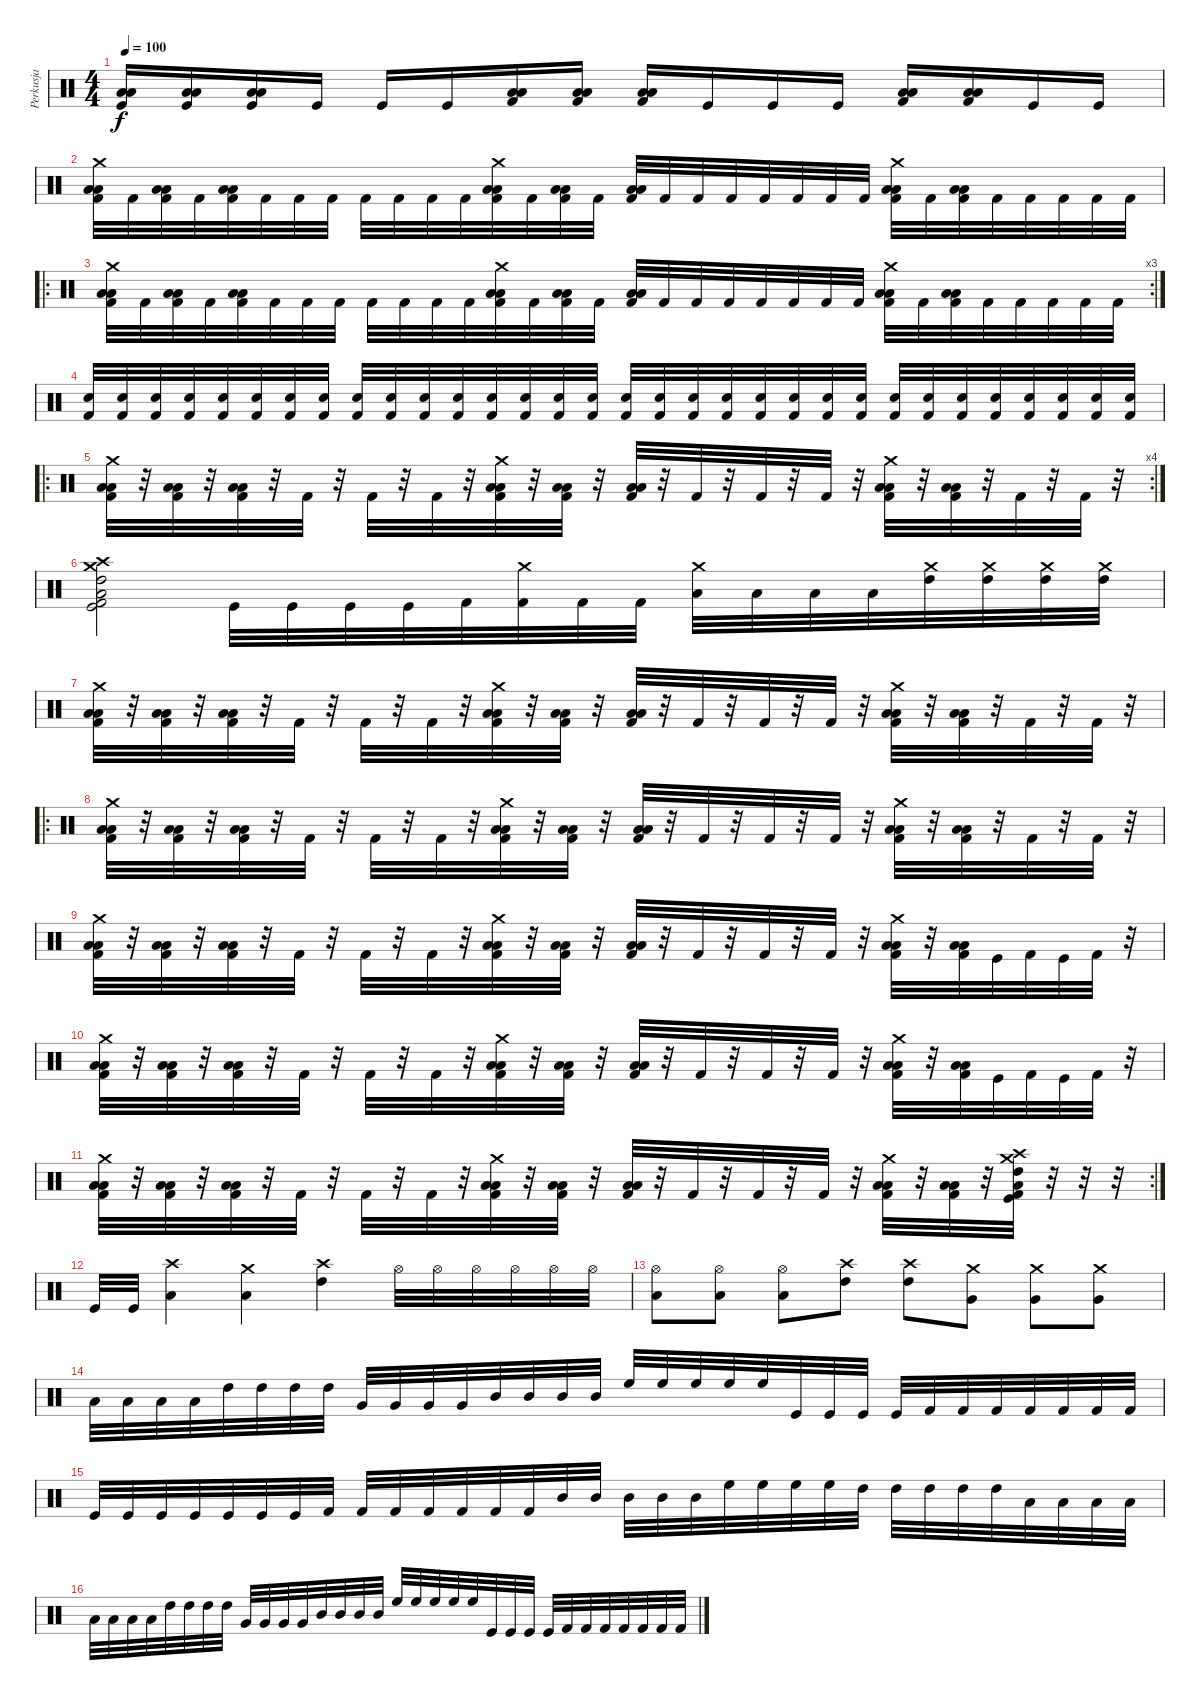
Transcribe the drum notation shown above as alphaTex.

\track ("Perkusja" "Perkusja") {instrument percussion}
\staff {score}
\articulation defaults
\ts (4 4)
\tempo 100
\clef neutral
\ks c
("Low Tom (hit)" "Low Tom (hit)" "Kick (hit)").16{dy f} ("Low Tom (hit)" "Low Tom (hit)" "Kick (hit)").16 ("Low Tom (hit)" "Low Tom (hit)" "Kick (hit)").16 "Kick (hit)".16 "Kick (hit)".16 "Kick (hit)".16 ("Low Tom (hit)" "Low Tom (hit)" "Kick (hit) 2").16 ("Low Tom (hit)" "Low Tom (hit)" "Kick (hit) 2").16 ("Low Tom (hit)" "Low Tom (hit)" "Kick (hit) 2").16 "Kick (hit)".16 "Kick (hit)".16 "Kick (hit)".16 ("Low Tom (hit)" "Low Tom (hit)" "Kick (hit) 2").16 ("Low Tom (hit)" "Low Tom (hit)" "Kick (hit) 2").16 "Kick (hit)".16 "Kick (hit)".16 |
("Crash medium (hit)" "Low Tom (hit)" "Low Tom (hit)" "Kick (hit) 2").32 "Kick (hit) 2".32 ("Low Tom (hit)" "Low Tom (hit)" "Kick (hit) 2").32 "Kick (hit) 2".32 ("Low Tom (hit)" "Low Tom (hit)" "Kick (hit) 2").32 "Kick (hit) 2".32 "Kick (hit) 2".32 "Kick (hit) 2".32 "Kick (hit) 2".32 "Kick (hit) 2".32 "Kick (hit) 2".32 "Kick (hit) 2".32 ("Crash medium (hit)" "Low Tom (hit)" "Low Tom (hit)" "Kick (hit) 2").32 "Kick (hit) 2".32 ("Low Tom (hit)" "Low Tom (hit)" "Kick (hit) 2").32 "Kick (hit) 2".32 ("Low Tom (hit)" "Low Tom (hit)" "Kick (hit) 2").32 "Kick (hit) 2".32 "Kick (hit) 2".32 "Kick (hit) 2".32 "Kick (hit) 2".32 "Kick (hit) 2".32 "Kick (hit) 2".32 "Kick (hit) 2".32 ("Crash medium (hit)" "Low Tom (hit)" "Low Tom (hit)" "Kick (hit) 2").32 "Kick (hit) 2".32 ("Low Tom (hit)" "Low Tom (hit)" "Kick (hit) 2").32 "Kick (hit) 2".32 "Kick (hit) 2".32 "Kick (hit) 2".32 "Kick (hit) 2".32 "Kick (hit) 2".32 |
\ro
\rc 3
("Crash medium (hit)" "Low Tom (hit)" "Low Tom (hit)" "Kick (hit) 2").32 "Kick (hit) 2".32 ("Low Tom (hit)" "Low Tom (hit)" "Kick (hit) 2").32 "Kick (hit) 2".32 ("Low Tom (hit)" "Low Tom (hit)" "Kick (hit) 2").32 "Kick (hit) 2".32 "Kick (hit) 2".32 "Kick (hit) 2".32 "Kick (hit) 2".32 "Kick (hit) 2".32 "Kick (hit) 2".32 "Kick (hit) 2".32 ("Crash medium (hit)" "Low Tom (hit)" "Low Tom (hit)" "Kick (hit) 2").32 "Kick (hit) 2".32 ("Low Tom (hit)" "Low Tom (hit)" "Kick (hit) 2").32 "Kick (hit) 2".32 ("Low Tom (hit)" "Low Tom (hit)" "Kick (hit) 2").32 "Kick (hit) 2".32 "Kick (hit) 2".32 "Kick (hit) 2".32 "Kick (hit) 2".32 "Kick (hit) 2".32 "Kick (hit) 2".32 "Kick (hit) 2".32 ("Crash medium (hit)" "Low Tom (hit)" "Low Tom (hit)" "Kick (hit) 2").32 "Kick (hit) 2".32 ("Low Tom (hit)" "Low Tom (hit)" "Kick (hit) 2").32 "Kick (hit) 2".32 "Kick (hit) 2".32 "Kick (hit) 2".32 "Kick (hit) 2".32 "Kick (hit) 2".32 |
("Electric Snare (hit)" "Kick (hit) 2").32 ("Electric Snare (hit)" "Kick (hit) 2").32 ("Electric Snare (hit)" "Kick (hit) 2").32 ("Electric Snare (hit)" "Kick (hit) 2").32 ("Electric Snare (hit)" "Kick (hit) 2").32 ("Electric Snare (hit)" "Kick (hit) 2").32 ("Electric Snare (hit)" "Kick (hit) 2").32 ("Electric Snare (hit)" "Kick (hit) 2").32 ("Electric Snare (hit)" "Kick (hit) 2").32 ("Electric Snare (hit)" "Kick (hit) 2").32 ("Electric Snare (hit)" "Kick (hit) 2").32 ("Electric Snare (hit)" "Kick (hit) 2").32 ("Electric Snare (hit)" "Kick (hit) 2").32 ("Electric Snare (hit)" "Kick (hit) 2").32 ("Electric Snare (hit)" "Kick (hit) 2").32 ("Electric Snare (hit)" "Kick (hit) 2").32 ("Electric Snare (hit)" "Kick (hit) 2").32 ("Electric Snare (hit)" "Kick (hit) 2").32 ("Electric Snare (hit)" "Kick (hit) 2").32 ("Electric Snare (hit)" "Kick (hit) 2").32 ("Electric Snare (hit)" "Kick (hit) 2").32 ("Electric Snare (hit)" "Kick (hit) 2").32 ("Electric Snare (hit)" "Kick (hit) 2").32 ("Electric Snare (hit)" "Kick (hit) 2").32 ("Electric Snare (hit)" "Kick (hit) 2").32 ("Electric Snare (hit)" "Kick (hit) 2").32 ("Electric Snare (hit)" "Kick (hit) 2").32 ("Electric Snare (hit)" "Kick (hit) 2").32 ("Electric Snare (hit)" "Kick (hit) 2").32 ("Electric Snare (hit)" "Kick (hit) 2").32 ("Electric Snare (hit)" "Kick (hit) 2").32 ("Electric Snare (hit)" "Kick (hit) 2").32 |
\ro
\rc 4
("Crash medium (hit)" "Low Tom (hit)" "Low Tom (hit)" "Kick (hit) 2").32 r.32 ("Low Tom (hit)" "Low Tom (hit)" "Kick (hit) 2").32 r.32 ("Low Tom (hit)" "Low Tom (hit)" "Kick (hit) 2").32 r.32 "Kick (hit) 2".32 r.32 "Kick (hit) 2".32 r.32 "Kick (hit) 2".32 r.32 ("Crash medium (hit)" "Low Tom (hit)" "Low Tom (hit)" "Kick (hit) 2").32 r.32 ("Low Tom (hit)" "Low Tom (hit)" "Kick (hit) 2").32 r.32 ("Low Tom (hit)" "Low Tom (hit)" "Kick (hit) 2").32 r.32 "Kick (hit) 2".32 r.32 "Kick (hit) 2".32 r.32 "Kick (hit) 2".32 r.32 ("Crash medium (hit)" "Low Tom (hit)" "Low Tom (hit)" "Kick (hit) 2").32 r.32 ("Low Tom (hit)" "Low Tom (hit)" "Kick (hit) 2").32 r.32 "Kick (hit) 2".32 r.32 "Kick (hit) 2".32 r.32 |
("Crash high (hit)" "Crash medium (hit)" "High Tom (hit)" "Low Tom (hit)" "Kick (hit)" "Kick (hit) 2").2 "Kick (hit)".32 "Kick (hit)".32 "Kick (hit)".32 "Kick (hit)".32 "Kick (hit) 2".32 ("Crash medium (hit)" "Kick (hit) 2").32 "Kick (hit) 2".32 "Kick (hit) 2".32 ("Crash medium (hit)" "Low Tom (hit)").32 "Low Tom (hit)".32 "Low Tom (hit)".32 "Low Tom (hit)".32 ("Crash medium (hit)" "High Tom (hit)").32 ("Crash medium (hit)" "High Tom (hit)").32 ("Crash medium (hit)" "High Tom (hit)").32 ("Crash medium (hit)" "High Tom (hit)").32 |
("Crash medium (hit)" "Low Tom (hit)" "Low Tom (hit)" "Kick (hit) 2").32 r.32 ("Low Tom (hit)" "Low Tom (hit)" "Kick (hit) 2").32 r.32 ("Low Tom (hit)" "Low Tom (hit)" "Kick (hit) 2").32 r.32 "Kick (hit) 2".32 r.32 "Kick (hit) 2".32 r.32 "Kick (hit) 2".32 r.32 ("Crash medium (hit)" "Low Tom (hit)" "Low Tom (hit)" "Kick (hit) 2").32 r.32 ("Low Tom (hit)" "Low Tom (hit)" "Kick (hit) 2").32 r.32 ("Low Tom (hit)" "Low Tom (hit)" "Kick (hit) 2").32 r.32 "Kick (hit) 2".32 r.32 "Kick (hit) 2".32 r.32 "Kick (hit) 2".32 r.32 ("Crash medium (hit)" "Low Tom (hit)" "Low Tom (hit)" "Kick (hit) 2").32 r.32 ("Low Tom (hit)" "Low Tom (hit)" "Kick (hit) 2").32 r.32 "Kick (hit) 2".32 r.32 "Kick (hit) 2".32 r.32 |
\ro
("Crash medium (hit)" "Low Tom (hit)" "Low Tom (hit)" "Kick (hit) 2").32 r.32 ("Low Tom (hit)" "Low Tom (hit)" "Kick (hit) 2").32 r.32 ("Low Tom (hit)" "Low Tom (hit)" "Kick (hit) 2").32 r.32 "Kick (hit) 2".32 r.32 "Kick (hit) 2".32 r.32 "Kick (hit) 2".32 r.32 ("Crash medium (hit)" "Low Tom (hit)" "Low Tom (hit)" "Kick (hit) 2").32 r.32 ("Low Tom (hit)" "Low Tom (hit)" "Kick (hit) 2").32 r.32 ("Low Tom (hit)" "Low Tom (hit)" "Kick (hit) 2").32 r.32 "Kick (hit) 2".32 r.32 "Kick (hit) 2".32 r.32 "Kick (hit) 2".32 r.32 ("Crash medium (hit)" "Low Tom (hit)" "Low Tom (hit)" "Kick (hit) 2").32 r.32 ("Low Tom (hit)" "Low Tom (hit)" "Kick (hit) 2").32 r.32 "Kick (hit) 2".32 r.32 "Kick (hit) 2".32 r.32 |
("Crash medium (hit)" "Low Tom (hit)" "Low Tom (hit)" "Kick (hit) 2").32 r.32 ("Low Tom (hit)" "Low Tom (hit)" "Kick (hit) 2").32 r.32 ("Low Tom (hit)" "Low Tom (hit)" "Kick (hit) 2").32 r.32 "Kick (hit) 2".32 r.32 "Kick (hit) 2".32 r.32 "Kick (hit) 2".32 r.32 ("Crash medium (hit)" "Low Tom (hit)" "Low Tom (hit)" "Kick (hit) 2").32 r.32 ("Low Tom (hit)" "Low Tom (hit)" "Kick (hit) 2").32 r.32 ("Low Tom (hit)" "Low Tom (hit)" "Kick (hit) 2").32 r.32 "Kick (hit) 2".32 r.32 "Kick (hit) 2".32 r.32 "Kick (hit) 2".32 r.32 ("Crash medium (hit)" "Low Tom (hit)" "Low Tom (hit)" "Kick (hit) 2").32 r.32 ("Low Tom (hit)" "Low Tom (hit)" "Kick (hit) 2").32 "Kick (hit)".32 "Kick (hit) 2".32 "Kick (hit)".32 "Kick (hit) 2".32 r.32 |
("Crash medium (hit)" "Low Tom (hit)" "Low Tom (hit)" "Kick (hit) 2").32 r.32 ("Low Tom (hit)" "Low Tom (hit)" "Kick (hit) 2").32 r.32 ("Low Tom (hit)" "Low Tom (hit)" "Kick (hit) 2").32 r.32 "Kick (hit) 2".32 r.32 "Kick (hit) 2".32 r.32 "Kick (hit) 2".32 r.32 ("Crash medium (hit)" "Low Tom (hit)" "Low Tom (hit)" "Kick (hit) 2").32 r.32 ("Low Tom (hit)" "Low Tom (hit)" "Kick (hit) 2").32 r.32 ("Low Tom (hit)" "Low Tom (hit)" "Kick (hit) 2").32 r.32 "Kick (hit) 2".32 r.32 "Kick (hit) 2".32 r.32 "Kick (hit) 2".32 r.32 ("Crash medium (hit)" "Low Tom (hit)" "Low Tom (hit)" "Kick (hit) 2").32 r.32 ("Low Tom (hit)" "Low Tom (hit)" "Kick (hit) 2").32 "Kick (hit)".32 "Kick (hit) 2".32 "Kick (hit)".32 "Kick (hit) 2".32 r.32 |
\rc 2
("Crash medium (hit)" "Low Tom (hit)" "Low Tom (hit)" "Kick (hit) 2").32 r.32 ("Low Tom (hit)" "Low Tom (hit)" "Kick (hit) 2").32 r.32 ("Low Tom (hit)" "Low Tom (hit)" "Kick (hit) 2").32 r.32 "Kick (hit) 2".32 r.32 "Kick (hit) 2".32 r.32 "Kick (hit) 2".32 r.32 ("Crash medium (hit)" "Low Tom (hit)" "Low Tom (hit)" "Kick (hit) 2").32 r.32 ("Low Tom (hit)" "Low Tom (hit)" "Kick (hit) 2").32 r.32 ("Low Tom (hit)" "Low Tom (hit)" "Kick (hit) 2").32 r.32 "Kick (hit) 2".32 r.32 "Kick (hit) 2".32 r.32 "Kick (hit) 2".32 r.32 ("Crash medium (hit)" "Low Tom (hit)" "Low Tom (hit)" "Kick (hit) 2").32 r.32 ("Low Tom (hit)" "Low Tom (hit)" "Kick (hit) 2").32 r.32 ("Crash high (hit)" "Crash medium (hit)" "High Tom (hit)" "Low Tom (hit)" "Kick (hit)" "Kick (hit) 2").32 r.32 r.32 r.32 |
"Kick (hit)".32 "Kick (hit)".32 ("Crash high (hit)" "Low Tom (hit)").4 ("Crash medium (hit)" "Low Tom (hit)").4 ("Crash high (hit)" "High Tom (hit)").4 "Hi-Hat (open)".32 "Hi-Hat (open)".32 "Hi-Hat (open)".32 "Hi-Hat (open)".32 "Hi-Hat (open)".32 "Hi-Hat (open)".32 |
("Hi-Hat (open)" "Low Tom (hit)").8 ("Hi-Hat (open)" "Low Tom (hit)").8 ("Hi-Hat (open)" "Low Tom (hit)").8 ("Crash high (hit)" "High Tom (hit)").8 ("Crash high (hit)" "High Tom (hit)").8 ("Crash medium (hit)" "Very Low Tom (hit)").8 ("Crash medium (hit)" "Very Low Tom (hit)").8 ("Crash medium (hit)" "Very Low Tom (hit)").8 |
"Low Tom (hit)".32 "Low Tom (hit)".32 "Low Tom (hit)".32 "Low Tom (hit)".32 "High Tom (hit)".32 "High Tom (hit)".32 "High Tom (hit)".32 "High Tom (hit)".32 "Very Low Tom (hit)".32 "Very Low Tom (hit)".32 "Very Low Tom (hit)".32 "Very Low Tom (hit)".32 "Mid Tom (hit)".32 "Mid Tom (hit)".32 "Mid Tom (hit)".32 "Mid Tom (hit)".32 "High Floor Tom (hit)".32 "High Floor Tom (hit)".32 "High Floor Tom (hit)".32 "High Floor Tom (hit)".32 "High Floor Tom (hit)".32 "Kick (hit)".32 "Kick (hit)".32 "Kick (hit)".32 "Kick (hit)".32 "Kick (hit) 2".32 "Kick (hit) 2".32 "Kick (hit) 2".32 "Kick (hit) 2".32 "Kick (hit) 2".32 "Kick (hit) 2".32 "Kick (hit) 2".32 |
"Kick (hit)".32 "Kick (hit)".32 "Kick (hit)".32 "Kick (hit)".32 "Kick (hit)".32 "Kick (hit)".32 "Kick (hit)".32 "Kick (hit) 2".32 "Kick (hit) 2".32 "Kick (hit) 2".32 "Kick (hit) 2".32 "Kick (hit) 2".32 "Kick (hit) 2".32 "Kick (hit) 2".32 "Mid Tom (hit)".32 "Mid Tom (hit)".32 "Mid Tom (hit)".32 "Mid Tom (hit)".32 "Mid Tom (hit)".32 "High Floor Tom (hit)".32 "High Floor Tom (hit)".32 "High Floor Tom (hit)".32 "High Floor Tom (hit)".32 "High Tom (hit)".32 "High Tom (hit)".32 "High Tom (hit)".32 "High Tom (hit)".32 "High Tom (hit)".32 "Low Tom (hit)".32 "Low Tom (hit)".32 "Low Tom (hit)".32 "Low Tom (hit)".32 |
"Low Tom (hit)".32 "Low Tom (hit)".32 "Low Tom (hit)".32 "Low Tom (hit)".32 "High Tom (hit)".32 "High Tom (hit)".32 "High Tom (hit)".32 "High Tom (hit)".32 "Very Low Tom (hit)".32 "Very Low Tom (hit)".32 "Very Low Tom (hit)".32 "Very Low Tom (hit)".32 "Mid Tom (hit)".32 "Mid Tom (hit)".32 "Mid Tom (hit)".32 "Mid Tom (hit)".32 "High Floor Tom (hit)".32 "High Floor Tom (hit)".32 "High Floor Tom (hit)".32 "High Floor Tom (hit)".32 "High Floor Tom (hit)".32 "Kick (hit)".32 "Kick (hit)".32 "Kick (hit)".32 "Kick (hit)".32 "Kick (hit) 2".32 "Kick (hit) 2".32 "Kick (hit) 2".32 "Kick (hit) 2".32 "Kick (hit) 2".32 "Kick (hit) 2".32 "Kick (hit) 2".32
